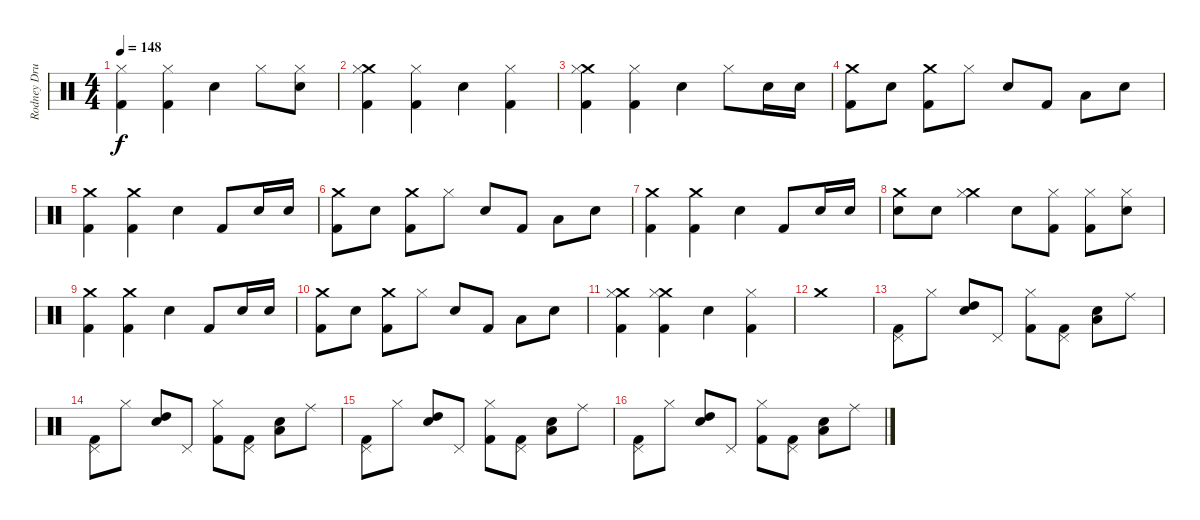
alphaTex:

\track ("Rodney Drums" "Rodney Dru") {instrument percussion}
\staff {score}
\articulation defaults
\ts (4 4)
\tempo 148
\clef neutral
\ks c
("Hi-Hat (closed)" "Kick (hit) 2").4{dy f} ("Hi-Hat (closed)" "Kick (hit) 2").4 "Electric Snare (hit)".4 "Hi-Hat (closed)".8 ("Hi-Hat (closed)" "Electric Snare (hit)").8 |
("Crash medium (hit)" "Hi-Hat (closed)" "Kick (hit) 2").4 ("Hi-Hat (closed)" "Kick (hit) 2").4 "Electric Snare (hit)".4 ("Hi-Hat (closed)" "Kick (hit) 2").4 |
("Crash medium (hit)" "Hi-Hat (closed)" "Kick (hit) 2").4 ("Hi-Hat (closed)" "Kick (hit) 2").4 "Electric Snare (hit)".4 "Hi-Hat (closed)".8 "Electric Snare (hit)".16 "Electric Snare (hit)".16 |
("Crash medium (hit)" "Kick (hit) 2").8 "Electric Snare (hit)".8 ("Crash medium (hit)" "Kick (hit) 2").8 "Hi-Hat (closed)".8 "Electric Snare (hit)".8 "Kick (hit) 2".8 "Low Tom (hit)".8 "Electric Snare (hit)".8 |
("Crash medium (hit)" "Kick (hit) 2").4 ("Crash medium (hit)" "Kick (hit) 2").4 "Electric Snare (hit)".4 "Kick (hit) 2".8 "Electric Snare (hit)".16 "Electric Snare (hit)".16 |
("Crash medium (hit)" "Kick (hit) 2").8 "Electric Snare (hit)".8 ("Crash medium (hit)" "Kick (hit) 2").8 "Hi-Hat (closed)".8 "Electric Snare (hit)".8 "Kick (hit) 2".8 "Low Tom (hit)".8 "Electric Snare (hit)".8 |
("Crash medium (hit)" "Kick (hit) 2").4 ("Crash medium (hit)" "Kick (hit) 2").4 "Electric Snare (hit)".4 "Kick (hit) 2".8 "Electric Snare (hit)".16 "Electric Snare (hit)".16 |
("Crash medium (hit)" "Electric Snare (hit)").8 "Electric Snare (hit)".8 ("Crash medium (hit)" "Hi-Hat (closed)").4 "Electric Snare (hit)".8 ("Hi-Hat (closed)" "Kick (hit) 2").8 ("Hi-Hat (closed)" "Kick (hit) 2").8 ("Hi-Hat (closed)" "Electric Snare (hit)").8 |
("Crash medium (hit)" "Kick (hit) 2").4 ("Crash medium (hit)" "Kick (hit) 2").4 "Electric Snare (hit)".4 "Kick (hit) 2".8 "Electric Snare (hit)".16 "Electric Snare (hit)".16 |
("Crash medium (hit)" "Kick (hit) 2").8 "Electric Snare (hit)".8 ("Crash medium (hit)" "Kick (hit) 2").8 "Hi-Hat (closed)".8 "Electric Snare (hit)".8 "Kick (hit) 2".8 "Low Tom (hit)".8 "Electric Snare (hit)".8 |
("Crash medium (hit)" "Hi-Hat (closed)" "Kick (hit) 2").4 ("Crash medium (hit)" "Hi-Hat (closed)" "Kick (hit) 2").4 "Electric Snare (hit)".4 ("Hi-Hat (closed)" "Kick (hit) 2").4 |
"Crash medium (hit)".1 |
("Pedal Hi-Hat (hit)" "Kick (hit) 2").8 "Hi-Hat (closed)".8 ("High Tom (hit)" "Electric Snare (hit)").8 "Pedal Hi-Hat (hit)".8 ("Hi-Hat (closed)" "Kick (hit) 2").8 ("Pedal Hi-Hat (hit)" "Kick (hit) 2").8 ("Low Tom (hit)" "Electric Snare (hit)").8 "Ride (middle)".8 |
("Pedal Hi-Hat (hit)" "Kick (hit) 2").8 "Hi-Hat (closed)".8 ("High Tom (hit)" "Electric Snare (hit)").8 "Pedal Hi-Hat (hit)".8 ("Hi-Hat (closed)" "Kick (hit) 2").8 ("Pedal Hi-Hat (hit)" "Kick (hit) 2").8 ("Low Tom (hit)" "Electric Snare (hit)").8 "Ride (middle)".8 |
("Pedal Hi-Hat (hit)" "Kick (hit) 2").8 "Hi-Hat (closed)".8 ("High Tom (hit)" "Electric Snare (hit)").8 "Pedal Hi-Hat (hit)".8 ("Hi-Hat (closed)" "Kick (hit) 2").8 ("Pedal Hi-Hat (hit)" "Kick (hit) 2").8 ("Low Tom (hit)" "Electric Snare (hit)").8 "Ride (middle)".8 |
("Pedal Hi-Hat (hit)" "Kick (hit) 2").8 "Hi-Hat (closed)".8 ("High Tom (hit)" "Electric Snare (hit)").8 "Pedal Hi-Hat (hit)".8 ("Hi-Hat (closed)" "Kick (hit) 2").8 ("Pedal Hi-Hat (hit)" "Kick (hit) 2").8 ("Low Tom (hit)" "Electric Snare (hit)").8 "Ride (middle)".8
